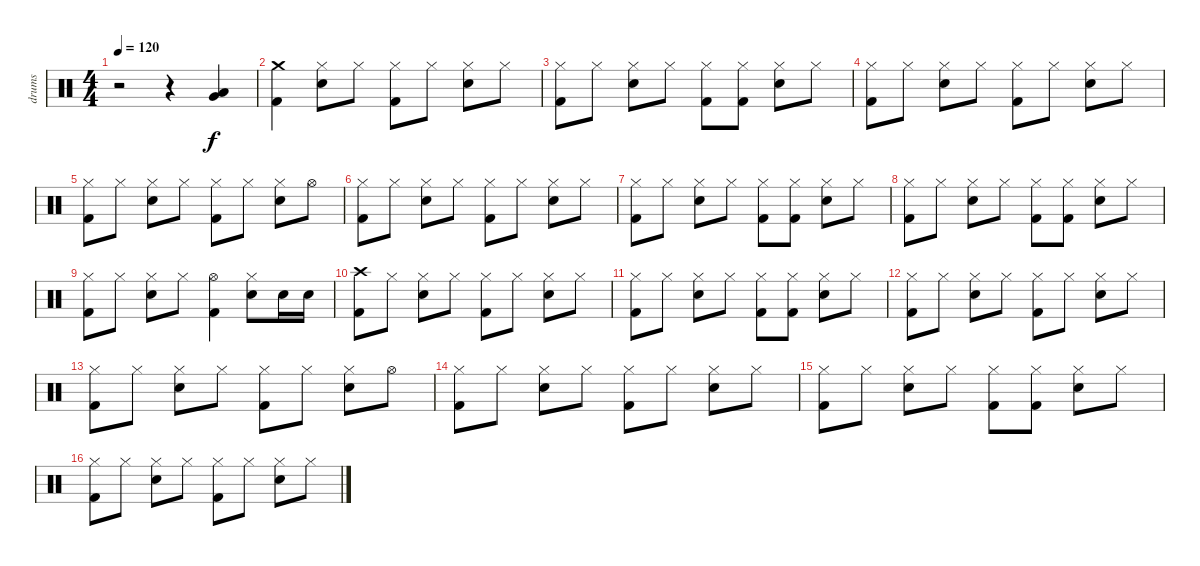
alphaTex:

\track ("drums" "drums") {instrument percussion}
\staff {score}
\articulation defaults
\ts (4 4)
\tempo 120
\clef neutral
\ks c
r.2{dy f} r.4 ("Very Low Tom (hit)" "Low Floor Tom (hit)").4 |
("Crash medium (hit)" "Kick (hit) 2").4 ("Hi-Hat (closed)" "Electric Snare (hit)").8 "Hi-Hat (closed)".8 ("Hi-Hat (closed)" "Kick (hit) 2").8 "Hi-Hat (closed)".8 ("Hi-Hat (closed)" "Electric Snare (hit)").8 "Hi-Hat (closed)".8 |
("Hi-Hat (closed)" "Kick (hit) 2").8 "Hi-Hat (closed)".8 ("Hi-Hat (closed)" "Electric Snare (hit)").8 "Hi-Hat (closed)".8 ("Hi-Hat (closed)" "Kick (hit) 2").8 ("Hi-Hat (closed)" "Kick (hit) 2").8 ("Hi-Hat (closed)" "Electric Snare (hit)").8 "Hi-Hat (closed)".8 |
("Hi-Hat (closed)" "Kick (hit) 2").8 "Hi-Hat (closed)".8 ("Hi-Hat (closed)" "Electric Snare (hit)").8 "Hi-Hat (closed)".8 ("Hi-Hat (closed)" "Kick (hit) 2").8 "Hi-Hat (closed)".8 ("Hi-Hat (closed)" "Electric Snare (hit)").8 "Hi-Hat (closed)".8 |
("Hi-Hat (closed)" "Kick (hit) 2").8 "Hi-Hat (closed)".8 ("Hi-Hat (closed)" "Electric Snare (hit)").8 "Hi-Hat (closed)".8 ("Hi-Hat (closed)" "Kick (hit) 2").8 "Hi-Hat (closed)".8 ("Hi-Hat (closed)" "Electric Snare (hit)").8 "Hi-Hat (open)".8 |
("Hi-Hat (closed)" "Kick (hit) 2").8 "Hi-Hat (closed)".8 ("Hi-Hat (closed)" "Electric Snare (hit)").8 "Hi-Hat (closed)".8 ("Hi-Hat (closed)" "Kick (hit) 2").8 "Hi-Hat (closed)".8 ("Hi-Hat (closed)" "Electric Snare (hit)").8 "Hi-Hat (closed)".8 |
("Hi-Hat (closed)" "Kick (hit) 2").8 "Hi-Hat (closed)".8 ("Hi-Hat (closed)" "Electric Snare (hit)").8 "Hi-Hat (closed)".8 ("Hi-Hat (closed)" "Kick (hit) 2").8 ("Hi-Hat (closed)" "Kick (hit) 2").8 ("Hi-Hat (closed)" "Electric Snare (hit)").8 "Hi-Hat (closed)".8 |
("Hi-Hat (closed)" "Kick (hit) 2").8 "Hi-Hat (closed)".8 ("Hi-Hat (closed)" "Electric Snare (hit)").8 "Hi-Hat (closed)".8 ("Hi-Hat (closed)" "Kick (hit) 2").8 ("Hi-Hat (closed)" "Kick (hit) 2").8 ("Hi-Hat (closed)" "Electric Snare (hit)").8 "Hi-Hat (closed)".8 |
("Hi-Hat (closed)" "Kick (hit) 2").8 "Hi-Hat (closed)".8 ("Hi-Hat (closed)" "Electric Snare (hit)").8 "Hi-Hat (closed)".8 ("Hi-Hat (open)" "Kick (hit) 2").4 ("Hi-Hat (closed)" "Electric Snare (hit)").8 "Electric Snare (hit)".16 "Electric Snare (hit)".16 |
("Crash high (hit)" "Kick (hit) 2").8 "Hi-Hat (closed)".8 ("Hi-Hat (closed)" "Electric Snare (hit)").8 "Hi-Hat (closed)".8 ("Hi-Hat (closed)" "Kick (hit) 2").8 "Hi-Hat (closed)".8 ("Hi-Hat (closed)" "Electric Snare (hit)").8 "Hi-Hat (closed)".8 |
("Hi-Hat (closed)" "Kick (hit) 2").8 "Hi-Hat (closed)".8 ("Hi-Hat (closed)" "Electric Snare (hit)").8 "Hi-Hat (closed)".8 ("Hi-Hat (closed)" "Kick (hit) 2").8 ("Hi-Hat (closed)" "Kick (hit) 2").8 ("Hi-Hat (closed)" "Electric Snare (hit)").8 "Hi-Hat (closed)".8 |
("Hi-Hat (closed)" "Kick (hit) 2").8 "Hi-Hat (closed)".8 ("Hi-Hat (closed)" "Electric Snare (hit)").8 "Hi-Hat (closed)".8 ("Hi-Hat (closed)" "Kick (hit) 2").8 "Hi-Hat (closed)".8 ("Hi-Hat (closed)" "Electric Snare (hit)").8 "Hi-Hat (closed)".8 |
("Hi-Hat (closed)" "Kick (hit) 2").8 "Hi-Hat (closed)".8 ("Hi-Hat (closed)" "Electric Snare (hit)").8 "Hi-Hat (closed)".8 ("Hi-Hat (closed)" "Kick (hit) 2").8 "Hi-Hat (closed)".8 ("Hi-Hat (closed)" "Electric Snare (hit)").8 "Hi-Hat (open)".8 |
("Hi-Hat (closed)" "Kick (hit) 2").8 "Hi-Hat (closed)".8 ("Hi-Hat (closed)" "Electric Snare (hit)").8 "Hi-Hat (closed)".8 ("Hi-Hat (closed)" "Kick (hit) 2").8 "Hi-Hat (closed)".8 ("Hi-Hat (closed)" "Electric Snare (hit)").8 "Hi-Hat (closed)".8 |
("Hi-Hat (closed)" "Kick (hit) 2").8 "Hi-Hat (closed)".8 ("Hi-Hat (closed)" "Electric Snare (hit)").8 "Hi-Hat (closed)".8 ("Hi-Hat (closed)" "Kick (hit) 2").8 ("Hi-Hat (closed)" "Kick (hit) 2").8 ("Hi-Hat (closed)" "Electric Snare (hit)").8 "Hi-Hat (closed)".8 |
("Hi-Hat (closed)" "Kick (hit) 2").8 "Hi-Hat (closed)".8 ("Hi-Hat (closed)" "Electric Snare (hit)").8 "Hi-Hat (closed)".8 ("Hi-Hat (closed)" "Kick (hit) 2").8 "Hi-Hat (closed)".8 ("Hi-Hat (closed)" "Electric Snare (hit)").8 "Hi-Hat (closed)".8
